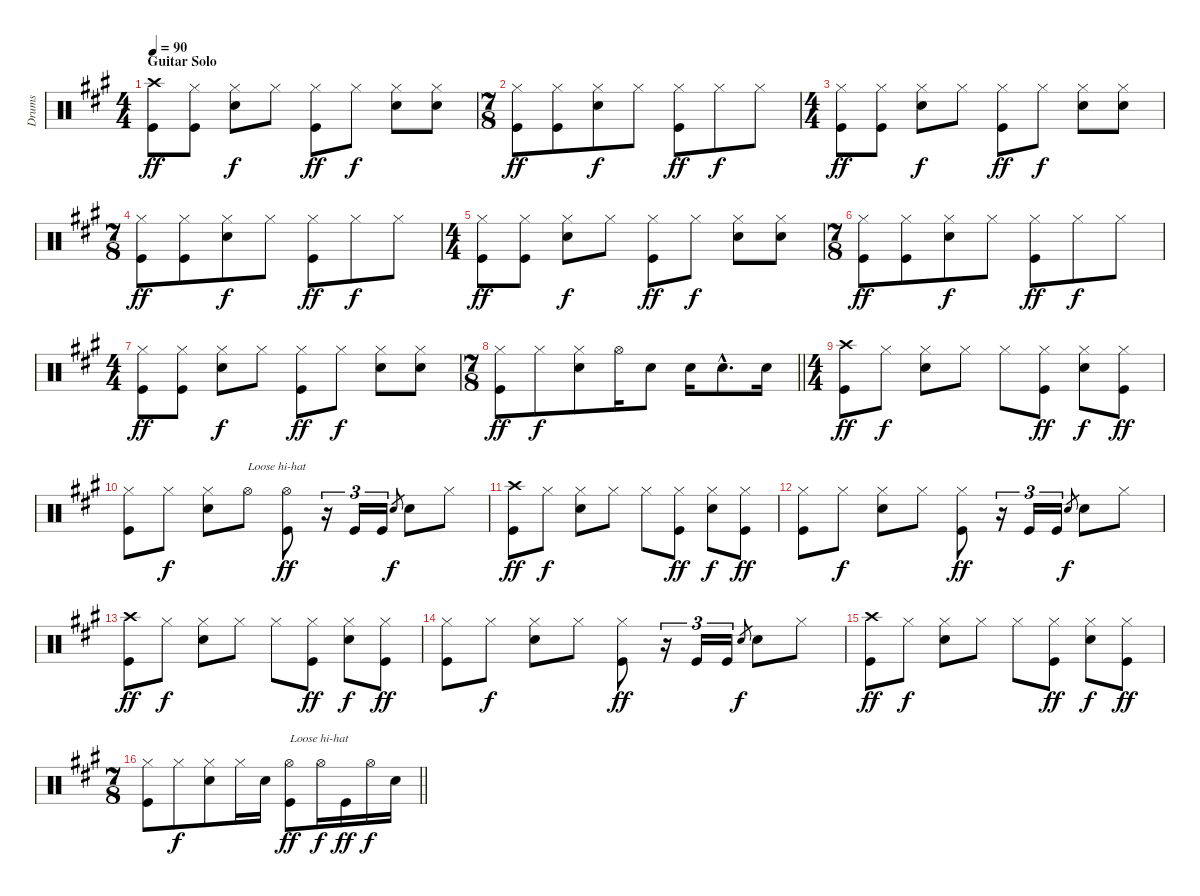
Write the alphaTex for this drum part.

\track ("Drums" "Drums") {instrument percussion}
\staff {score}
\articulation defaults
\ts (4 4)
\section ("" "Guitar Solo")
\tempo 90
\clef neutral
\ks a
("Crash high (hit)" "Kick (hit)").8{dy ff} ("Hi-Hat (closed)" "Kick (hit)").8 ("Hi-Hat (closed)" "Snare (hit) 2").8{dy f} "Hi-Hat (closed)".8 ("Hi-Hat (closed)" "Kick (hit)").8{dy ff} "Hi-Hat (closed)".8{dy f} ("Hi-Hat (closed)" "Snare (hit) 2").8 ("Hi-Hat (closed)" "Snare (hit) 2").8 |
\ts (7 8)
("Hi-Hat (closed)" "Kick (hit)").8{dy ff} ("Hi-Hat (closed)" "Kick (hit)").8 ("Hi-Hat (closed)" "Snare (hit) 2").8{dy f} "Hi-Hat (closed)".8 ("Hi-Hat (closed)" "Kick (hit)").8{dy ff} "Hi-Hat (closed)".8{dy f} "Hi-Hat (closed)".8 |
\ts (4 4)
("Hi-Hat (closed)" "Kick (hit)").8{dy ff} ("Hi-Hat (closed)" "Kick (hit)").8 ("Hi-Hat (closed)" "Snare (hit) 2").8{dy f} "Hi-Hat (closed)".8 ("Hi-Hat (closed)" "Kick (hit)").8{dy ff} "Hi-Hat (closed)".8{dy f} ("Hi-Hat (closed)" "Snare (hit) 2").8 ("Hi-Hat (closed)" "Snare (hit) 2").8 |
\ts (7 8)
("Hi-Hat (closed)" "Kick (hit)").8{dy ff} ("Hi-Hat (closed)" "Kick (hit)").8 ("Hi-Hat (closed)" "Snare (hit) 2").8{dy f} "Hi-Hat (closed)".8 ("Hi-Hat (closed)" "Kick (hit)").8{dy ff} "Hi-Hat (closed)".8{dy f} "Hi-Hat (closed)".8 |
\ts (4 4)
("Hi-Hat (closed)" "Kick (hit)").8{dy ff} ("Hi-Hat (closed)" "Kick (hit)").8 ("Hi-Hat (closed)" "Snare (hit) 2").8{dy f} "Hi-Hat (closed)".8 ("Hi-Hat (closed)" "Kick (hit)").8{dy ff} "Hi-Hat (closed)".8{dy f} ("Hi-Hat (closed)" "Snare (hit) 2").8 ("Hi-Hat (closed)" "Snare (hit) 2").8 |
\ts (7 8)
("Hi-Hat (closed)" "Kick (hit)").8{dy ff} ("Hi-Hat (closed)" "Kick (hit)").8 ("Hi-Hat (closed)" "Snare (hit) 2").8{dy f} "Hi-Hat (closed)".8 ("Hi-Hat (closed)" "Kick (hit)").8{dy ff} "Hi-Hat (closed)".8{dy f} "Hi-Hat (closed)".8 |
\ts (4 4)
("Hi-Hat (closed)" "Kick (hit)").8{dy ff} ("Hi-Hat (closed)" "Kick (hit)").8 ("Hi-Hat (closed)" "Snare (hit) 2").8{dy f} "Hi-Hat (closed)".8 ("Hi-Hat (closed)" "Kick (hit)").8{dy ff} "Hi-Hat (closed)".8{dy f} ("Hi-Hat (closed)" "Snare (hit) 2").8 ("Hi-Hat (closed)" "Snare (hit) 2").8 |
\ts (7 8)
\barLineRight lightlight
("Hi-Hat (closed)" "Kick (hit)").8{dy ff} "Hi-Hat (closed)".8{dy f} ("Hi-Hat (closed)" "Snare (hit) 2").8 "Hi-Hat (open)".16 "Snare (hit) 2".8 "Snare (hit) 2".16 "Snare (hit) 2"{hac}.8{d} "Snare (hit) 2".16 |
\ts (4 4)
("Crash high (hit)" "Kick (hit)").8{dy ff} "Hi-Hat (closed)".8{dy f} ("Hi-Hat (closed)" "Snare (hit) 2").8 "Hi-Hat (closed)".8 "Hi-Hat (closed)".8 ("Hi-Hat (closed)" "Kick (hit)").8{dy ff} ("Hi-Hat (closed)" "Snare (hit) 2").8{dy f} ("Hi-Hat (closed)" "Kick (hit)").8{dy ff} |
("Hi-Hat (closed)" "Kick (hit)").8 "Hi-Hat (closed)".8{dy f} ("Hi-Hat (closed)" "Snare (hit) 2").8 "Hi-Hat (open)".8{txt "Loose hi-hat"} ("Hi-Hat (open)" "Kick (hit)").8{dy ff} r.16{tu (3 2)} "Kick (hit)".16{tu (3 2)} "Kick (hit)".16{tu (3 2)} "Snare (hit) 2".8{gr dy f} "Snare (hit) 2".8 "Hi-Hat (closed)".8 |
("Crash high (hit)" "Kick (hit)").8{dy ff} "Hi-Hat (closed)".8{dy f} ("Hi-Hat (closed)" "Snare (hit) 2").8 "Hi-Hat (closed)".8 "Hi-Hat (closed)".8 ("Hi-Hat (closed)" "Kick (hit)").8{dy ff} ("Hi-Hat (closed)" "Snare (hit) 2").8{dy f} ("Hi-Hat (closed)" "Kick (hit)").8{dy ff} |
("Hi-Hat (closed)" "Kick (hit)").8 "Hi-Hat (closed)".8{dy f} ("Hi-Hat (closed)" "Snare (hit) 2").8 "Hi-Hat (closed)".8 ("Hi-Hat (closed)" "Kick (hit)").8{dy ff} r.16{tu (3 2)} "Kick (hit)".16{tu (3 2)} "Kick (hit)".16{tu (3 2)} "Snare (hit) 2".8{gr dy f} "Snare (hit) 2".8 "Hi-Hat (closed)".8 |
("Crash high (hit)" "Kick (hit)").8{dy ff} "Hi-Hat (closed)".8{dy f} ("Hi-Hat (closed)" "Snare (hit) 2").8 "Hi-Hat (closed)".8 "Hi-Hat (closed)".8 ("Hi-Hat (closed)" "Kick (hit)").8{dy ff} ("Hi-Hat (closed)" "Snare (hit) 2").8{dy f} ("Hi-Hat (closed)" "Kick (hit)").8{dy ff} |
("Hi-Hat (closed)" "Kick (hit)").8 "Hi-Hat (closed)".8{dy f} ("Hi-Hat (closed)" "Snare (hit) 2").8 "Hi-Hat (closed)".8 ("Hi-Hat (closed)" "Kick (hit)").8{dy ff} r.16{tu (3 2)} "Kick (hit)".16{tu (3 2)} "Kick (hit)".16{tu (3 2)} "Snare (hit) 2".8{gr dy f} "Snare (hit) 2".8 "Hi-Hat (closed)".8 |
("Crash high (hit)" "Kick (hit)").8{dy ff} "Hi-Hat (closed)".8{dy f} ("Hi-Hat (closed)" "Snare (hit) 2").8 "Hi-Hat (closed)".8 "Hi-Hat (closed)".8 ("Hi-Hat (closed)" "Kick (hit)").8{dy ff} ("Hi-Hat (closed)" "Snare (hit) 2").8{dy f} ("Hi-Hat (closed)" "Kick (hit)").8{dy ff} |
\ts (7 8)
\barLineRight lightlight
("Hi-Hat (closed)" "Kick (hit)").8 "Hi-Hat (closed)".8{dy f} ("Hi-Hat (closed)" "Snare (hit) 2").8 "Hi-Hat (closed)".16 "Snare (hit) 2".16 ("Hi-Hat (open)" "Kick (hit)").8{txt "Loose hi-hat" dy ff} "Hi-Hat (open)".16{dy f} "Kick (hit)".16{dy ff} "Hi-Hat (open)".16{dy f} "Snare (hit) 2".16
